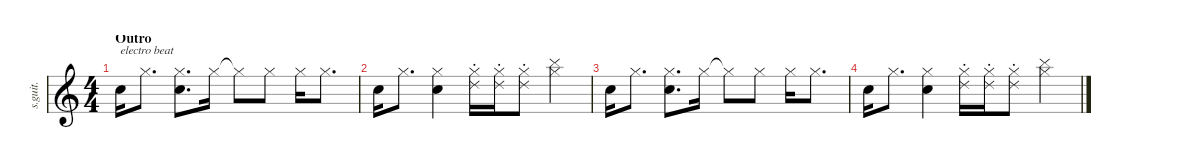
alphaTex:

\defaultSystemsLayout 4
\hideDynamics
\bracketExtendMode nobrackets
\track ("Rob Bourdon" "s.guit.") {instrument percussion}
\staff {score}
\articulation defaults
\ts (4 4)
\section ("" "Outro")
\tempo (110 hide)
\clef g2
\ks c "Snare (hit) 2".16{txt "electro beat" dy f} "Hi-Hat (closed)".8{d}
("Hi-Hat (closed)" "Snare (hit) 2").8{d} "Hi-Hat (closed)".16 "Hi-Hat (closed)"{t}.8 "Hi-Hat (closed)".8 "Hi-Hat (closed)".16 "Hi-Hat (closed)".8{d} |
"Snare (hit) 2".16 "Hi-Hat (closed)".8{d} ("Hi-Hat (closed)" "Snare (hit) 2").4 ("Hi-Hat (closed)" "Ride (choke) 2").16 ("Hi-Hat (closed)" "Ride (choke) 2").16 ("Hi-Hat (closed)" "Ride (choke) 2").8 ("Hi-Hat (closed)" "Cymbal (hit)").4 |
"Snare (hit) 2".16 "Hi-Hat (closed)".8{d} ("Hi-Hat (closed)" "Snare (hit) 2").8{d} "Hi-Hat (closed)".16 "Hi-Hat (closed)"{t}.8 "Hi-Hat (closed)".8 "Hi-Hat (closed)".16 "Hi-Hat (closed)".8{d} |
"Snare (hit) 2".16 "Hi-Hat (closed)".8{d} ("Hi-Hat (closed)" "Snare (hit) 2").4 ("Hi-Hat (closed)" "Ride (choke) 2").16 ("Hi-Hat (closed)" "Ride (choke) 2").16 ("Hi-Hat (closed)" "Ride (choke) 2").8 ("Hi-Hat (closed)" "Cymbal (hit)").4
